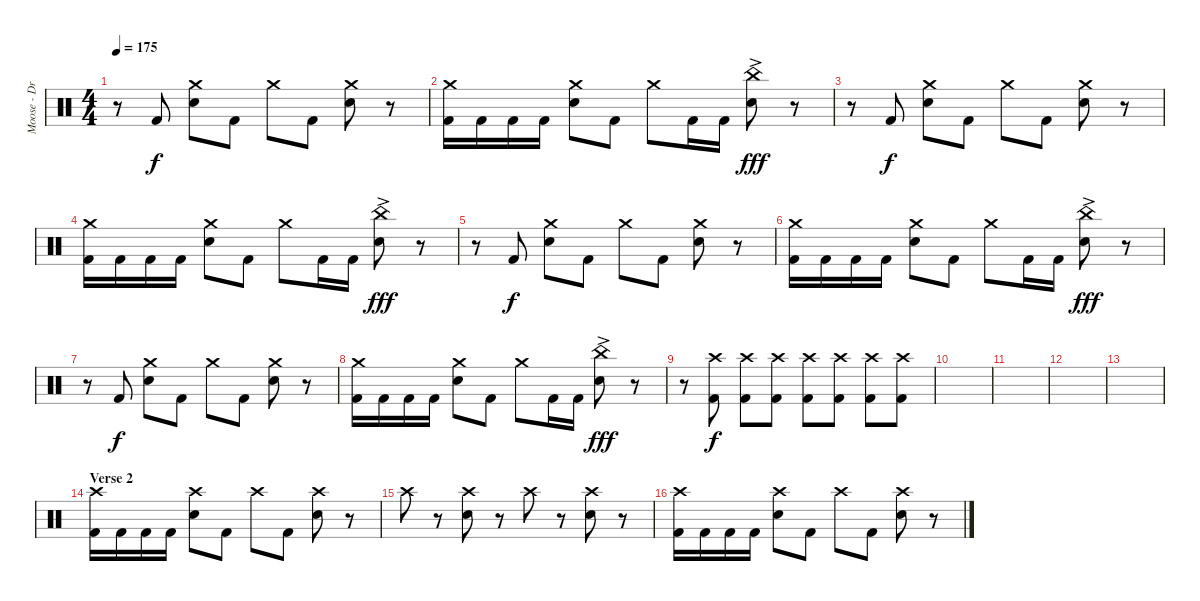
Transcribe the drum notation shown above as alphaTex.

\track ("Moose - Drums" "Moose - Dr") {instrument percussion}
\staff {score}
\articulation defaults
\ts (4 4)
\tempo 175
\clef neutral
\ks c
r.8{dy fff} "Kick (hit) 2".8{dy f} ("Crash medium (hit)" "Electric Snare (hit)").8 "Kick (hit) 2".8 "Crash medium (hit)".8 "Kick (hit) 2".8 ("Crash medium (hit)" "Electric Snare (hit)").8 r.8 |
("Crash medium (hit)" "Kick (hit) 2").16 "Kick (hit) 2".16 "Kick (hit) 2".16 "Kick (hit) 2".16 ("Crash medium (hit)" "Electric Snare (hit)").8 "Kick (hit) 2".8 "Crash medium (hit)".8 "Kick (hit) 2".16 "Kick (hit) 2".16 ("China (hit)"{ac} "Electric Snare (hit)").8{dy fff} r.8 |
r.8 "Kick (hit) 2".8{dy f} ("Crash medium (hit)" "Electric Snare (hit)").8 "Kick (hit) 2".8 "Crash medium (hit)".8 "Kick (hit) 2".8 ("Crash medium (hit)" "Electric Snare (hit)").8 r.8 |
("Crash medium (hit)" "Kick (hit) 2").16 "Kick (hit) 2".16 "Kick (hit) 2".16 "Kick (hit) 2".16 ("Crash medium (hit)" "Electric Snare (hit)").8 "Kick (hit) 2".8 "Crash medium (hit)".8 "Kick (hit) 2".16 "Kick (hit) 2".16 ("China (hit)"{ac} "Electric Snare (hit)").8{dy fff} r.8 |
r.8 "Kick (hit) 2".8{dy f} ("Crash medium (hit)" "Electric Snare (hit)").8 "Kick (hit) 2".8 "Crash medium (hit)".8 "Kick (hit) 2".8 ("Crash medium (hit)" "Electric Snare (hit)").8 r.8 |
("Crash medium (hit)" "Kick (hit) 2").16 "Kick (hit) 2".16 "Kick (hit) 2".16 "Kick (hit) 2".16 ("Crash medium (hit)" "Electric Snare (hit)").8 "Kick (hit) 2".8 "Crash medium (hit)".8 "Kick (hit) 2".16 "Kick (hit) 2".16 ("China (hit)"{ac} "Electric Snare (hit)").8{dy fff} r.8 |
r.8 "Kick (hit) 2".8{dy f} ("Crash medium (hit)" "Electric Snare (hit)").8 "Kick (hit) 2".8 "Crash medium (hit)".8 "Kick (hit) 2".8 ("Crash medium (hit)" "Electric Snare (hit)").8 r.8 |
("Crash medium (hit)" "Kick (hit) 2").16 "Kick (hit) 2".16 "Kick (hit) 2".16 "Kick (hit) 2".16 ("Crash medium (hit)" "Electric Snare (hit)").8 "Kick (hit) 2".8 "Crash medium (hit)".8 "Kick (hit) 2".16 "Kick (hit) 2".16 ("China (hit)"{ac} "Electric Snare (hit)").8{dy fff} r.8 |
r.8 ("Crash high (hit)" "Kick (hit) 2").8{dy f} ("Crash high (hit)" "Kick (hit) 2").8 ("Crash high (hit)" "Kick (hit) 2").8 ("Crash high (hit)" "Kick (hit) 2").8 ("Crash high (hit)" "Kick (hit) 2").8 ("Crash high (hit)" "Kick (hit) 2").8 ("Crash high (hit)" "Kick (hit) 2").8 |
|
|
|
|
\section ("" "Verse 2")
("Crash high (hit)" "Kick (hit) 2").16 "Kick (hit) 2".16 "Kick (hit) 2".16 "Kick (hit) 2".16 ("Crash high (hit)" "Electric Snare (hit)").8 "Kick (hit) 2".8 "Crash high (hit)".8 "Kick (hit) 2".8 ("Crash high (hit)" "Electric Snare (hit)").8 r.8 |
"Crash high (hit)".8 r.8 ("Crash high (hit)" "Electric Snare (hit)").8 r.8 "Crash high (hit)".8 r.8 ("Crash high (hit)" "Electric Snare (hit)").8 r.8 |
("Crash high (hit)" "Kick (hit) 2").16 "Kick (hit) 2".16 "Kick (hit) 2".16 "Kick (hit) 2".16 ("Crash high (hit)" "Electric Snare (hit)").8 "Kick (hit) 2".8 "Crash high (hit)".8 "Kick (hit) 2".8 ("Crash high (hit)" "Electric Snare (hit)").8 r.8
